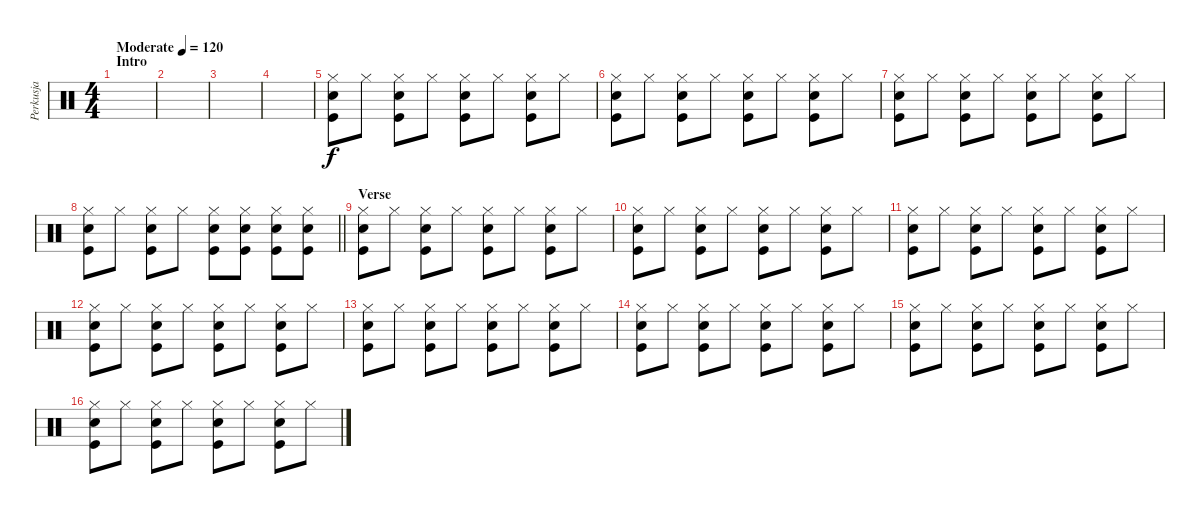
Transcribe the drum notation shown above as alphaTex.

\track ("Perkusja" "Perkusja") {instrument percussion}
\staff {score}
\articulation defaults
\ts (4 4)
\section ("" "Intro")
\tempo (120 "Moderate")
\clef neutral
\ks c
|
|
|
|
("Snare (hit) 2" "Kick (hit)" "Hi-Hat (closed)").8 "Hi-Hat (closed)".8 ("Kick (hit)" "Snare (hit) 2" "Hi-Hat (closed)").8 "Hi-Hat (closed)".8 ("Snare (hit) 2" "Kick (hit)" "Hi-Hat (closed)").8 "Hi-Hat (closed)".8 ("Kick (hit)" "Snare (hit) 2" "Hi-Hat (closed)").8 "Hi-Hat (closed)".8 |
("Snare (hit) 2" "Kick (hit)" "Hi-Hat (closed)").8 "Hi-Hat (closed)".8 ("Kick (hit)" "Snare (hit) 2" "Hi-Hat (closed)").8 "Hi-Hat (closed)".8 ("Snare (hit) 2" "Kick (hit)" "Hi-Hat (closed)").8 "Hi-Hat (closed)".8 ("Kick (hit)" "Snare (hit) 2" "Hi-Hat (closed)").8 "Hi-Hat (closed)".8 |
("Snare (hit) 2" "Kick (hit)" "Hi-Hat (closed)").8 "Hi-Hat (closed)".8 ("Kick (hit)" "Snare (hit) 2" "Hi-Hat (closed)").8 "Hi-Hat (closed)".8 ("Snare (hit) 2" "Kick (hit)" "Hi-Hat (closed)").8 "Hi-Hat (closed)".8 ("Kick (hit)" "Snare (hit) 2" "Hi-Hat (closed)").8 "Hi-Hat (closed)".8 |
\barLineRight lightlight
("Snare (hit) 2" "Kick (hit)" "Hi-Hat (closed)").8 "Hi-Hat (closed)".8 ("Kick (hit)" "Snare (hit) 2" "Hi-Hat (closed)").8 "Hi-Hat (closed)".8 ("Snare (hit) 2" "Kick (hit)" "Hi-Hat (closed)").8 ("Snare (hit) 2" "Kick (hit)" "Hi-Hat (closed)").8 ("Kick (hit)" "Snare (hit) 2" "Hi-Hat (closed)").8 ("Kick (hit)" "Snare (hit) 2" "Hi-Hat (closed)").8 |
\section ("" "Verse")
("Snare (hit) 2" "Kick (hit)" "Hi-Hat (closed)").8 "Hi-Hat (closed)".8 ("Kick (hit)" "Snare (hit) 2" "Hi-Hat (closed)").8 "Hi-Hat (closed)".8 ("Snare (hit) 2" "Kick (hit)" "Hi-Hat (closed)").8 "Hi-Hat (closed)".8 ("Kick (hit)" "Snare (hit) 2" "Hi-Hat (closed)").8 "Hi-Hat (closed)".8 |
("Snare (hit) 2" "Kick (hit)" "Hi-Hat (closed)").8 "Hi-Hat (closed)".8 ("Kick (hit)" "Snare (hit) 2" "Hi-Hat (closed)").8 "Hi-Hat (closed)".8 ("Snare (hit) 2" "Kick (hit)" "Hi-Hat (closed)").8 "Hi-Hat (closed)".8 ("Kick (hit)" "Snare (hit) 2" "Hi-Hat (closed)").8 "Hi-Hat (closed)".8 |
("Snare (hit) 2" "Kick (hit)" "Hi-Hat (closed)").8 "Hi-Hat (closed)".8 ("Kick (hit)" "Snare (hit) 2" "Hi-Hat (closed)").8 "Hi-Hat (closed)".8 ("Snare (hit) 2" "Kick (hit)" "Hi-Hat (closed)").8 "Hi-Hat (closed)".8 ("Kick (hit)" "Snare (hit) 2" "Hi-Hat (closed)").8 "Hi-Hat (closed)".8 |
("Snare (hit) 2" "Kick (hit)" "Hi-Hat (closed)").8 "Hi-Hat (closed)".8 ("Kick (hit)" "Snare (hit) 2" "Hi-Hat (closed)").8 "Hi-Hat (closed)".8 ("Snare (hit) 2" "Kick (hit)" "Hi-Hat (closed)").8 "Hi-Hat (closed)".8 ("Kick (hit)" "Snare (hit) 2" "Hi-Hat (closed)").8 "Hi-Hat (closed)".8 |
("Snare (hit) 2" "Kick (hit)" "Hi-Hat (closed)").8 "Hi-Hat (closed)".8 ("Kick (hit)" "Snare (hit) 2" "Hi-Hat (closed)").8 "Hi-Hat (closed)".8 ("Snare (hit) 2" "Kick (hit)" "Hi-Hat (closed)").8 "Hi-Hat (closed)".8 ("Kick (hit)" "Snare (hit) 2" "Hi-Hat (closed)").8 "Hi-Hat (closed)".8 |
("Snare (hit) 2" "Kick (hit)" "Hi-Hat (closed)").8 "Hi-Hat (closed)".8 ("Kick (hit)" "Snare (hit) 2" "Hi-Hat (closed)").8 "Hi-Hat (closed)".8 ("Snare (hit) 2" "Kick (hit)" "Hi-Hat (closed)").8 "Hi-Hat (closed)".8 ("Kick (hit)" "Snare (hit) 2" "Hi-Hat (closed)").8 "Hi-Hat (closed)".8 |
("Snare (hit) 2" "Kick (hit)" "Hi-Hat (closed)").8 "Hi-Hat (closed)".8 ("Kick (hit)" "Snare (hit) 2" "Hi-Hat (closed)").8 "Hi-Hat (closed)".8 ("Snare (hit) 2" "Kick (hit)" "Hi-Hat (closed)").8 "Hi-Hat (closed)".8 ("Kick (hit)" "Snare (hit) 2" "Hi-Hat (closed)").8 "Hi-Hat (closed)".8 |
("Snare (hit) 2" "Kick (hit)" "Hi-Hat (closed)").8 "Hi-Hat (closed)".8 ("Kick (hit)" "Snare (hit) 2" "Hi-Hat (closed)").8 "Hi-Hat (closed)".8 ("Snare (hit) 2" "Kick (hit)" "Hi-Hat (closed)").8 "Hi-Hat (closed)".8 ("Kick (hit)" "Snare (hit) 2" "Hi-Hat (closed)").8 "Hi-Hat (closed)".8
